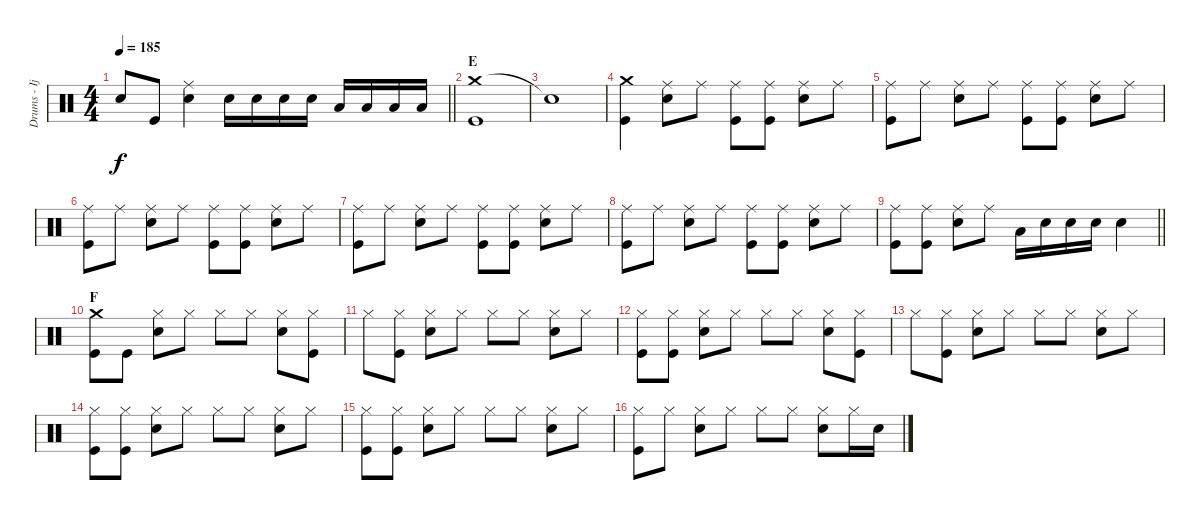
\track ("Drums - Ijichi" "Drums - Ij") {instrument percussion}
\staff {score}
\articulation defaults
\ts (4 4)
\tempo 185
\clef neutral
\barLineRight lightlight
\ks c "Snare (hit)"{t}.8{dy f} "Kick (hit)".8
("Ride (middle)" "Electric Snare (hit)").4 "Electric Snare (hit)".16 "Electric Snare (hit)".16 "Electric Snare (hit)".16 "Electric Snare (hit)".16 "Low Tom (hit)".16 "Low Tom (hit)".16 "Low Tom (hit)".16 "Low Tom (hit)".16 |
\section ("" "E")
("Crash medium (hit)" "Kick (hit)").1 |
"Snare (hit)"{t}.1 |
("Crash medium (hit)" "Kick (hit)").4 ("Ride (middle)" "Electric Snare (hit)").8 "Ride (middle)".8 ("Ride (middle)" "Kick (hit)").8 ("Ride (middle)" "Kick (hit)").8 ("Ride (middle)" "Electric Snare (hit)").8 "Ride (middle)".8 |
("Ride (middle)" "Kick (hit)").8 "Ride (middle)".8 ("Ride (middle)" "Electric Snare (hit)").8 "Ride (middle)".8 ("Ride (middle)" "Kick (hit)").8 ("Ride (middle)" "Kick (hit)").8 ("Ride (middle)" "Electric Snare (hit)").8 "Ride (middle)".8 |
("Ride (middle)" "Kick (hit)").8 "Ride (middle)".8 ("Ride (middle)" "Electric Snare (hit)").8 "Ride (middle)".8 ("Ride (middle)" "Kick (hit)").8 ("Ride (middle)" "Kick (hit)").8 ("Ride (middle)" "Electric Snare (hit)").8 "Ride (middle)".8 |
("Ride (middle)" "Kick (hit)").8 "Ride (middle)".8 ("Ride (middle)" "Electric Snare (hit)").8 "Ride (middle)".8 ("Ride (middle)" "Kick (hit)").8 ("Ride (middle)" "Kick (hit)").8 ("Ride (middle)" "Electric Snare (hit)").8 "Ride (middle)".8 |
("Ride (middle)" "Kick (hit)").8 "Ride (middle)".8 ("Ride (middle)" "Electric Snare (hit)").8 "Ride (middle)".8 ("Ride (middle)" "Kick (hit)").8 ("Ride (middle)" "Kick (hit)").8 ("Ride (middle)" "Electric Snare (hit)").8 "Ride (middle)".8 |
\barLineRight lightlight
("Ride (middle)" "Kick (hit)").8 ("Ride (middle)" "Kick (hit)").8 ("Ride (middle)" "Electric Snare (hit)").8 "Ride (middle)".8 "Low Tom (hit)".16 "Electric Snare (hit)".16 "Electric Snare (hit)".16 "Electric Snare (hit)".16 "Electric Snare (hit)".4 |
\section ("" "F")
("Crash medium (hit)" "Kick (hit)").8 "Kick (hit)".8 ("Hi-Hat (closed)" "Electric Snare (hit)").8 "Hi-Hat (closed)".8 "Hi-Hat (closed)".8 "Hi-Hat (closed)".8 ("Hi-Hat (closed)" "Electric Snare (hit)").8 ("Hi-Hat (closed)" "Kick (hit)").8 |
"Hi-Hat (closed)".8 ("Hi-Hat (closed)" "Kick (hit)").8 ("Hi-Hat (closed)" "Electric Snare (hit)").8 "Hi-Hat (closed)".8 "Hi-Hat (closed)".8 "Hi-Hat (closed)".8 ("Hi-Hat (closed)" "Electric Snare (hit)").8 "Hi-Hat (closed)".8 |
("Hi-Hat (closed)" "Kick (hit)").8 ("Hi-Hat (closed)" "Kick (hit)").8 ("Hi-Hat (closed)" "Electric Snare (hit)").8 "Hi-Hat (closed)".8 "Hi-Hat (closed)".8 "Hi-Hat (closed)".8 ("Hi-Hat (closed)" "Electric Snare (hit)").8 ("Hi-Hat (closed)" "Kick (hit)").8 |
"Hi-Hat (closed)".8 ("Hi-Hat (closed)" "Kick (hit)").8 ("Hi-Hat (closed)" "Electric Snare (hit)").8 "Hi-Hat (closed)".8 "Hi-Hat (closed)".8 "Hi-Hat (closed)".8 ("Hi-Hat (closed)" "Electric Snare (hit)").8 "Hi-Hat (closed)".8 |
("Hi-Hat (closed)" "Kick (hit)").8 ("Hi-Hat (closed)" "Kick (hit)").8 ("Hi-Hat (closed)" "Electric Snare (hit)").8 "Hi-Hat (closed)".8 "Hi-Hat (closed)".8 "Hi-Hat (closed)".8 ("Hi-Hat (closed)" "Electric Snare (hit)").8 "Hi-Hat (closed)".8 |
("Hi-Hat (closed)" "Kick (hit)").8 ("Hi-Hat (closed)" "Kick (hit)").8 ("Hi-Hat (closed)" "Electric Snare (hit)").8 "Hi-Hat (closed)".8 "Hi-Hat (closed)".8 "Hi-Hat (closed)".8 ("Hi-Hat (closed)" "Electric Snare (hit)").8 "Hi-Hat (closed)".8 |
("Hi-Hat (closed)" "Kick (hit)").8 "Hi-Hat (closed)".8 ("Hi-Hat (closed)" "Electric Snare (hit)").8 "Hi-Hat (closed)".8 "Hi-Hat (closed)".8 "Hi-Hat (closed)".8 ("Hi-Hat (closed)" "Electric Snare (hit)").8 "Hi-Hat (closed)".16 "Electric Snare (hit)".16
